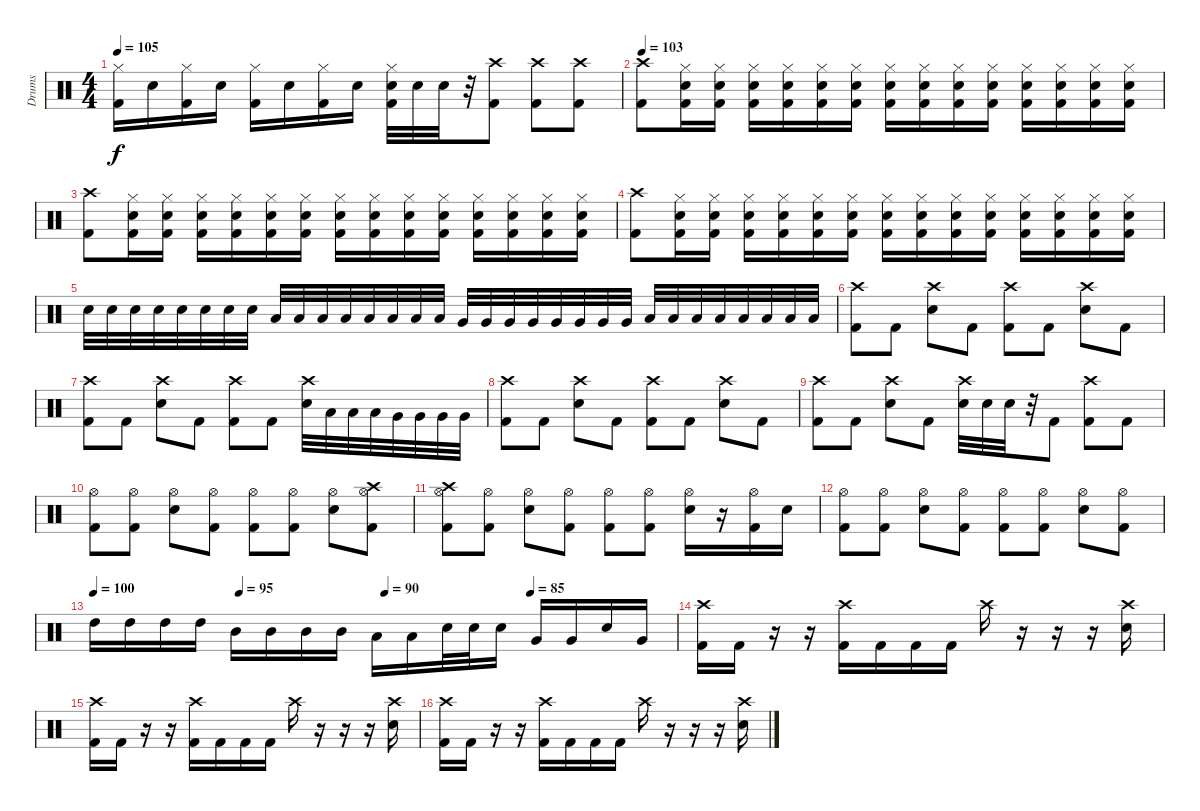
\track ("Drums" "Drums") {instrument percussion}
\staff {score}
\articulation defaults
\ts (4 4)
\tempo 105
\clef neutral
\ks c
("Hi-Hat (closed)" "Kick (hit) 2").16{dy f} "Electric Snare (hit)".16 ("Hi-Hat (closed)" "Kick (hit) 2").16 "Electric Snare (hit)".16 ("Hi-Hat (closed)" "Kick (hit) 2").16 "Electric Snare (hit)".16 ("Hi-Hat (closed)" "Kick (hit) 2").16 "Electric Snare (hit)".16 ("Hi-Hat (closed)" "Electric Snare (hit)" "Kick (hit) 2").32 "Electric Snare (hit)".32 "Electric Snare (hit)".32 r.32 ("Crash high (hit)" "Kick (hit) 2").8 ("Crash high (hit)" "Kick (hit) 2").8 ("Crash high (hit)" "Kick (hit) 2").8 |
\tempo 103
("Crash high (hit)" "Kick (hit) 2").8 ("Hi-Hat (closed)" "Electric Snare (hit)" "Kick (hit) 2").16 ("Hi-Hat (closed)" "Electric Snare (hit)" "Kick (hit) 2").16 ("Hi-Hat (closed)" "Electric Snare (hit)" "Kick (hit) 2").16 ("Hi-Hat (closed)" "Electric Snare (hit)" "Kick (hit) 2").16 ("Hi-Hat (closed)" "Electric Snare (hit)" "Kick (hit) 2").16 ("Hi-Hat (closed)" "Electric Snare (hit)" "Kick (hit) 2").16 ("Hi-Hat (closed)" "Electric Snare (hit)" "Kick (hit) 2").16 ("Hi-Hat (closed)" "Electric Snare (hit)" "Kick (hit) 2").16 ("Hi-Hat (closed)" "Electric Snare (hit)" "Kick (hit) 2").16 ("Hi-Hat (closed)" "Electric Snare (hit)" "Kick (hit) 2").16 ("Hi-Hat (closed)" "Electric Snare (hit)" "Kick (hit) 2").16 ("Hi-Hat (closed)" "Electric Snare (hit)" "Kick (hit) 2").16 ("Hi-Hat (closed)" "Electric Snare (hit)" "Kick (hit) 2").16 ("Hi-Hat (closed)" "Electric Snare (hit)" "Kick (hit) 2").16 |
("Crash high (hit)" "Kick (hit) 2").8 ("Hi-Hat (closed)" "Electric Snare (hit)" "Kick (hit) 2").16 ("Hi-Hat (closed)" "Electric Snare (hit)" "Kick (hit) 2").16 ("Hi-Hat (closed)" "Electric Snare (hit)" "Kick (hit) 2").16 ("Hi-Hat (closed)" "Electric Snare (hit)" "Kick (hit) 2").16 ("Hi-Hat (closed)" "Electric Snare (hit)" "Kick (hit) 2").16 ("Hi-Hat (closed)" "Electric Snare (hit)" "Kick (hit) 2").16 ("Hi-Hat (closed)" "Electric Snare (hit)" "Kick (hit) 2").16 ("Hi-Hat (closed)" "Electric Snare (hit)" "Kick (hit) 2").16 ("Hi-Hat (closed)" "Electric Snare (hit)" "Kick (hit) 2").16 ("Hi-Hat (closed)" "Electric Snare (hit)" "Kick (hit) 2").16 ("Hi-Hat (closed)" "Electric Snare (hit)" "Kick (hit) 2").16 ("Hi-Hat (closed)" "Electric Snare (hit)" "Kick (hit) 2").16 ("Hi-Hat (closed)" "Electric Snare (hit)" "Kick (hit) 2").16 ("Hi-Hat (closed)" "Electric Snare (hit)" "Kick (hit) 2").16 |
("Crash high (hit)" "Kick (hit) 2").8 ("Hi-Hat (closed)" "Electric Snare (hit)" "Kick (hit) 2").16 ("Hi-Hat (closed)" "Electric Snare (hit)" "Kick (hit) 2").16 ("Hi-Hat (closed)" "Electric Snare (hit)" "Kick (hit) 2").16 ("Hi-Hat (closed)" "Electric Snare (hit)" "Kick (hit) 2").16 ("Hi-Hat (closed)" "Electric Snare (hit)" "Kick (hit) 2").16 ("Hi-Hat (closed)" "Electric Snare (hit)" "Kick (hit) 2").16 ("Hi-Hat (closed)" "Electric Snare (hit)" "Kick (hit) 2").16 ("Hi-Hat (closed)" "Electric Snare (hit)" "Kick (hit) 2").16 ("Hi-Hat (closed)" "Electric Snare (hit)" "Kick (hit) 2").16 ("Hi-Hat (closed)" "Electric Snare (hit)" "Kick (hit) 2").16 ("Hi-Hat (closed)" "Electric Snare (hit)" "Kick (hit) 2").16 ("Hi-Hat (closed)" "Electric Snare (hit)" "Kick (hit) 2").16 ("Hi-Hat (closed)" "Electric Snare (hit)" "Kick (hit) 2").16 ("Hi-Hat (closed)" "Electric Snare (hit)" "Kick (hit) 2").16 |
"Electric Snare (hit)".32 "Electric Snare (hit)".32 "Electric Snare (hit)".32 "Electric Snare (hit)".32 "Electric Snare (hit)".32 "Electric Snare (hit)".32 "Electric Snare (hit)".32 "Electric Snare (hit)".32 "Low Tom (hit)".32 "Low Tom (hit)".32 "Low Tom (hit)".32 "Low Tom (hit)".32 "Low Tom (hit)".32 "Low Tom (hit)".32 "Low Tom (hit)".32 "Low Tom (hit)".32 "Very Low Tom (hit)".32 "Very Low Tom (hit)".32 "Very Low Tom (hit)".32 "Very Low Tom (hit)".32 "Very Low Tom (hit)".32 "Very Low Tom (hit)".32 "Very Low Tom (hit)".32 "Very Low Tom (hit)".32 "Low Floor Tom (hit)".32 "Low Floor Tom (hit)".32 "Low Floor Tom (hit)".32 "Low Floor Tom (hit)".32 "Low Floor Tom (hit)".32 "Low Floor Tom (hit)".32 "Low Floor Tom (hit)".32 "Low Floor Tom (hit)".32 |
("Crash high (hit)" "Kick (hit) 2").8 "Kick (hit) 2".8 ("Crash high (hit)" "Electric Snare (hit)").8 "Kick (hit) 2".8 ("Crash high (hit)" "Kick (hit) 2").8 "Kick (hit) 2".8 ("Crash high (hit)" "Electric Snare (hit)").8 "Kick (hit) 2".8 |
("Crash high (hit)" "Kick (hit) 2").8 "Kick (hit) 2".8 ("Crash high (hit)" "Electric Snare (hit)").8 "Kick (hit) 2".8 ("Crash high (hit)" "Kick (hit) 2").8 "Kick (hit) 2".8 ("Crash high (hit)" "Electric Snare (hit)").32 "Low Tom (hit)".32 "Low Tom (hit)".32 "Low Tom (hit)".32 "Very Low Tom (hit)".32 "Very Low Tom (hit)".32 "Very Low Tom (hit)".32 "Very Low Tom (hit)".32 |
("Crash high (hit)" "Kick (hit) 2").8 "Kick (hit) 2".8 ("Crash high (hit)" "Electric Snare (hit)").8 "Kick (hit) 2".8 ("Crash high (hit)" "Kick (hit) 2").8 "Kick (hit) 2".8 ("Crash high (hit)" "Electric Snare (hit)").8 "Kick (hit) 2".8 |
("Crash high (hit)" "Kick (hit) 2").8 "Kick (hit) 2".8 ("Crash high (hit)" "Electric Snare (hit)").8 "Kick (hit) 2".8 ("Crash high (hit)" "Electric Snare (hit)").32 "Electric Snare (hit)".32 "Electric Snare (hit)".32 r.32 "Kick (hit) 2".8 ("Crash high (hit)" "Kick (hit) 2").8 "Kick (hit) 2".8 |
("Hi-Hat (open)" "Kick (hit) 2").8 ("Hi-Hat (open)" "Kick (hit) 2").8 ("Hi-Hat (open)" "Electric Snare (hit)").8 ("Hi-Hat (open)" "Kick (hit) 2").8 ("Hi-Hat (open)" "Kick (hit) 2").8 ("Hi-Hat (open)" "Kick (hit) 2").8 ("Hi-Hat (open)" "Electric Snare (hit)").8 ("Hi-Hat (open)" "Crash high (hit)" "Kick (hit) 2").8 |
("Hi-Hat (open)" "Crash high (hit)" "Kick (hit) 2").8 ("Hi-Hat (open)" "Kick (hit) 2").8 ("Hi-Hat (open)" "Electric Snare (hit)").8 ("Hi-Hat (open)" "Kick (hit) 2").8 ("Hi-Hat (open)" "Kick (hit) 2").8 ("Hi-Hat (open)" "Kick (hit) 2").8 ("Hi-Hat (open)" "Electric Snare (hit)").16 r.16 ("Hi-Hat (open)" "Kick (hit) 2").16 "Electric Snare (hit)".16 |
("Hi-Hat (open)" "Kick (hit) 2").8 ("Hi-Hat (open)" "Kick (hit) 2").8 ("Hi-Hat (open)" "Electric Snare (hit)").8 ("Hi-Hat (open)" "Kick (hit) 2").8 ("Hi-Hat (open)" "Kick (hit) 2").8 ("Hi-Hat (open)" "Kick (hit) 2").8 ("Hi-Hat (open)" "Electric Snare (hit)").8 ("Hi-Hat (open)" "Kick (hit) 2").8 |
\tempo 100
\tempo (95 0.25)
\tempo (90 0.5)
\tempo (88 0.75)
\tempo (85 0.75)
"High Tom (hit)".16 "High Tom (hit)".16 "High Tom (hit)".16 "High Tom (hit)".16 "Mid Tom (hit)".16 "Mid Tom (hit)".16 "Mid Tom (hit)".16 "Mid Tom (hit)".16 "Low Tom (hit)".16 "Low Tom (hit)".16 "Electric Snare (hit)".32 "Electric Snare (hit)".32 "Electric Snare (hit)".16 "Very Low Tom (hit)".16 "Very Low Tom (hit)".16 "Electric Snare (hit)".16 "Very Low Tom (hit)".16 |
("Crash high (hit)" "Kick (hit) 2").16 "Kick (hit) 2".16 r.16 r.16 ("Crash high (hit)" "Kick (hit) 2").16 "Kick (hit) 2".16 "Kick (hit) 2".16 "Kick (hit) 2".16 "Crash high (hit)".16 r.16 r.16 r.16 ("Crash high (hit)" "Electric Snare (hit)").16 |
("Crash high (hit)" "Kick (hit) 2").16 "Kick (hit) 2".16 r.16 r.16 ("Crash high (hit)" "Kick (hit) 2").16 "Kick (hit) 2".16 "Kick (hit) 2".16 "Kick (hit) 2".16 "Crash high (hit)".16 r.16 r.16 r.16 ("Crash high (hit)" "Electric Snare (hit)").16 |
("Crash high (hit)" "Kick (hit) 2").16 "Kick (hit) 2".16 r.16 r.16 ("Crash high (hit)" "Kick (hit) 2").16 "Kick (hit) 2".16 "Kick (hit) 2".16 "Kick (hit) 2".16 "Crash high (hit)".16 r.16 r.16 r.16 ("Crash high (hit)" "Electric Snare (hit)").16
